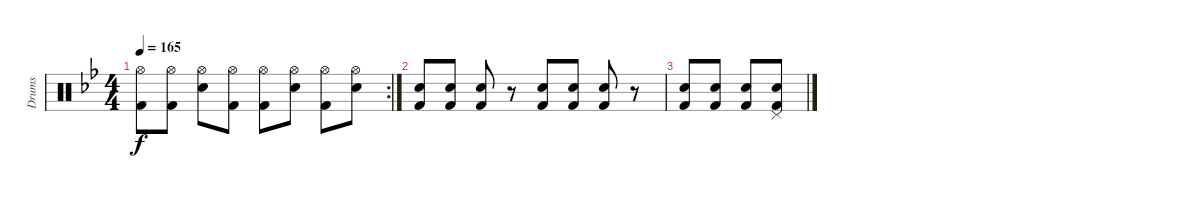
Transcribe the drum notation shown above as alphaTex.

\track ("Drums" "Drums") {instrument percussion}
\staff {score}
\articulation defaults
\rc 2
\ts (4 4)
\tempo 165
\clef neutral
\ks bb
("Kick (hit) 2" "Hi-Hat (open)").8{dy f} ("Kick (hit) 2" "Hi-Hat (open)").8 ("Electric Snare (hit)" "Hi-Hat (open)").8 ("Kick (hit) 2" "Hi-Hat (open)").8 ("Kick (hit) 2" "Hi-Hat (open)").8 ("Electric Snare (hit)" "Hi-Hat (open)").8 ("Kick (hit) 2" "Hi-Hat (open)").8 ("Electric Snare (hit)" "Hi-Hat (open)").8 |
("Kick (hit) 2" "Electric Snare (hit)").8 ("Kick (hit) 2" "Electric Snare (hit)").8 ("Kick (hit) 2" "Electric Snare (hit)").8 r.8 ("Kick (hit) 2" "Electric Snare (hit)").8 ("Kick (hit) 2" "Electric Snare (hit)").8 ("Kick (hit) 2" "Electric Snare (hit)").8 r.8 |
("Kick (hit) 2" "Electric Snare (hit)").8 ("Kick (hit) 2" "Electric Snare (hit)").8 ("Kick (hit) 2" "Electric Snare (hit)").8 ("Kick (hit) 2" "Electric Snare (hit)" "Pedal Hi-Hat (hit)").8
